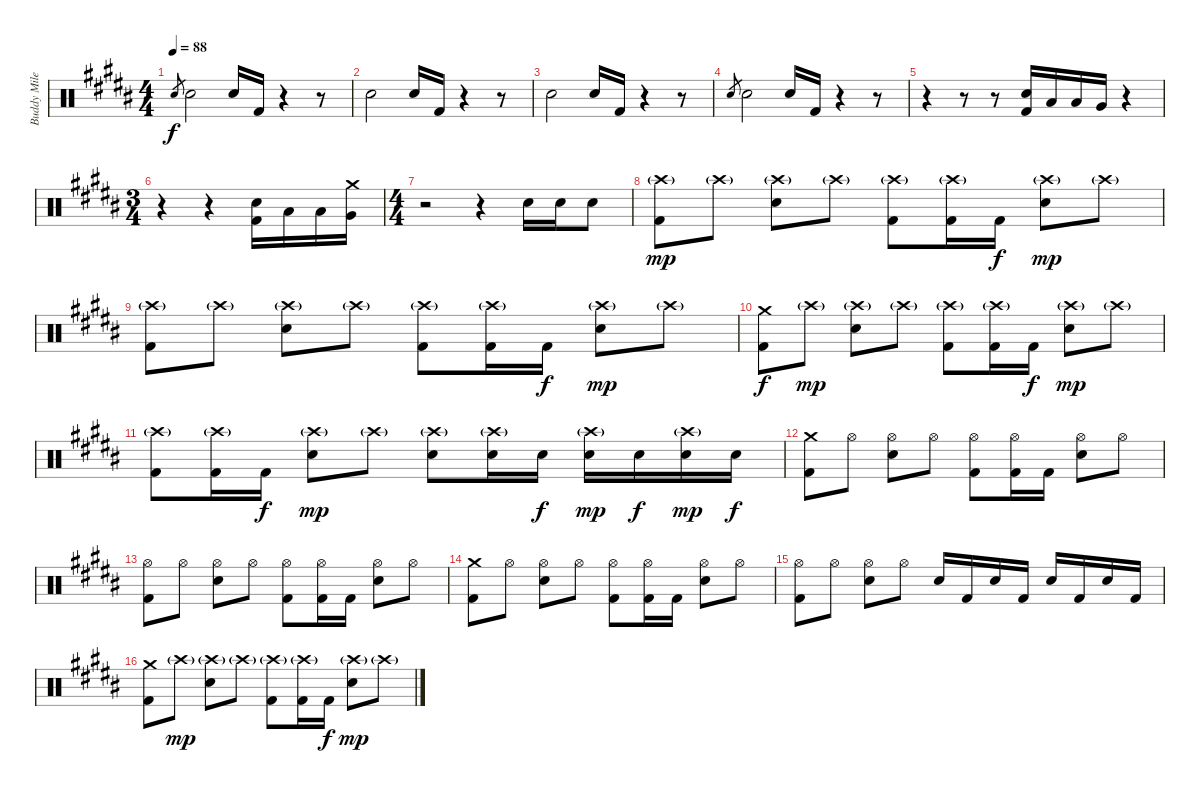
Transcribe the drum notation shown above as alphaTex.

\track ("Buddy Miles" "Buddy Mile") {instrument percussion}
\staff {score}
\articulation defaults
\ts (4 4)
\tempo 88
\clef neutral
\ks b "Electric Snare (hit)".8{gr dy f} "Electric Snare (hit)".2 "Electric Snare (hit)".16 "Kick (hit) 2".16
r.4 r.8 |
"Electric Snare (hit)".2 "Electric Snare (hit)".16 "Kick (hit) 2".16 r.4 r.8 |
"Electric Snare (hit)".2 "Electric Snare (hit)".16 "Kick (hit) 2".16 r.4 r.8 |
"Electric Snare (hit)".8{gr} "Electric Snare (hit)".2 "Electric Snare (hit)".16 "Kick (hit) 2".16 r.4 r.8 |
r.4 r.8 r.8 ("Kick (hit) 2" "Electric Snare (hit)").16 "Low Floor Tom (hit)".16 "Low Tom (hit)".16 "Very Low Tom (hit)".16 r.4 |
\ts (3 4)
r.4 r.4 ("Kick (hit) 2" "Electric Snare (hit)").16 "Low Floor Tom (hit)".16 "Low Tom (hit)".16 ("Very Low Tom (hit)" "Crash medium (hit)").16 |
\ts (4 4)
r.2 r.4 "Electric Snare (hit)".16 "Electric Snare (hit)".16 "Electric Snare (hit)".8 |
("Crash high (hit)"{g} "Kick (hit) 2").8{dy mp} "Crash high (hit)"{g}.8 ("Crash high (hit)"{g} "Electric Snare (hit)").8 "Crash high (hit)"{g}.8 ("Crash high (hit)"{g} "Kick (hit) 2").8 ("Crash high (hit)"{g} "Kick (hit) 2").16 "Kick (hit) 2".16{dy f} ("Crash high (hit)"{g} "Electric Snare (hit)").8{dy mp} "Crash high (hit)"{g}.8 |
("Crash high (hit)"{g} "Kick (hit) 2").8 "Crash high (hit)"{g}.8 ("Crash high (hit)"{g} "Electric Snare (hit)").8 "Crash high (hit)"{g}.8 ("Crash high (hit)"{g} "Kick (hit) 2").8 ("Crash high (hit)"{g} "Kick (hit) 2").16 "Kick (hit) 2".16{dy f} ("Crash high (hit)"{g} "Electric Snare (hit)").8{dy mp} "Crash high (hit)"{g}.8 |
("Kick (hit) 2" "Crash medium (hit)").8{dy f} "Crash high (hit)"{g}.8{dy mp} ("Crash high (hit)"{g} "Electric Snare (hit)").8 "Crash high (hit)"{g}.8 ("Crash high (hit)"{g} "Kick (hit) 2").8 ("Crash high (hit)"{g} "Kick (hit) 2").16 "Kick (hit) 2".16{dy f} ("Crash high (hit)"{g} "Electric Snare (hit)").8{dy mp} "Crash high (hit)"{g}.8 |
("Crash high (hit)"{g} "Kick (hit) 2").8 ("Crash high (hit)"{g} "Kick (hit) 2").16 "Kick (hit) 2".16{dy f} ("Crash high (hit)"{g} "Electric Snare (hit)").8{dy mp} "Crash high (hit)"{g}.8 ("Crash high (hit)"{g} "Electric Snare (hit)").8 ("Crash high (hit)"{g} "Electric Snare (hit)").16 "Electric Snare (hit)".16{dy f} ("Crash high (hit)"{g} "Electric Snare (hit)").16{dy mp} "Electric Snare (hit)".16{dy f} ("Crash high (hit)"{g} "Electric Snare (hit)").16{dy mp} "Electric Snare (hit)".16{dy f} |
("Kick (hit) 2" "Crash medium (hit)").8 "Hi-Hat (open)".8 ("Hi-Hat (open)" "Electric Snare (hit)").8 "Hi-Hat (open)".8 ("Hi-Hat (open)" "Kick (hit) 2").8 ("Hi-Hat (open)" "Kick (hit) 2").16 "Kick (hit) 2".16 ("Hi-Hat (open)" "Electric Snare (hit)").8 "Hi-Hat (open)".8 |
("Hi-Hat (open)" "Kick (hit) 2").8 "Hi-Hat (open)".8 ("Hi-Hat (open)" "Electric Snare (hit)").8 "Hi-Hat (open)".8 ("Hi-Hat (open)" "Kick (hit) 2").8 ("Hi-Hat (open)" "Kick (hit) 2").16 "Kick (hit) 2".16 ("Hi-Hat (open)" "Electric Snare (hit)").8 "Hi-Hat (open)".8 |
("Kick (hit) 2" "Crash medium (hit)").8 "Hi-Hat (open)".8 ("Hi-Hat (open)" "Electric Snare (hit)").8 "Hi-Hat (open)".8 ("Hi-Hat (open)" "Kick (hit) 2").8 ("Hi-Hat (open)" "Kick (hit) 2").16 "Kick (hit) 2".16 ("Hi-Hat (open)" "Electric Snare (hit)").8 "Hi-Hat (open)".8 |
("Hi-Hat (open)" "Kick (hit) 2").8 "Hi-Hat (open)".8 ("Hi-Hat (open)" "Electric Snare (hit)").8 "Hi-Hat (open)".8 "Electric Snare (hit)".16 "Kick (hit) 2".16 "Electric Snare (hit)".16 "Kick (hit) 2".16 "Electric Snare (hit)".16 "Kick (hit) 2".16 "Electric Snare (hit)".16 "Kick (hit) 2".16 |
("Kick (hit) 2" "Crash medium (hit)").8 "Crash high (hit)"{g}.8{dy mp} ("Crash high (hit)"{g} "Electric Snare (hit)").8 "Crash high (hit)"{g}.8 ("Crash high (hit)"{g} "Kick (hit) 2").8 ("Crash high (hit)"{g} "Kick (hit) 2").16 "Kick (hit) 2".16{dy f} ("Crash high (hit)"{g} "Electric Snare (hit)").8{dy mp} "Crash high (hit)"{g}.8
